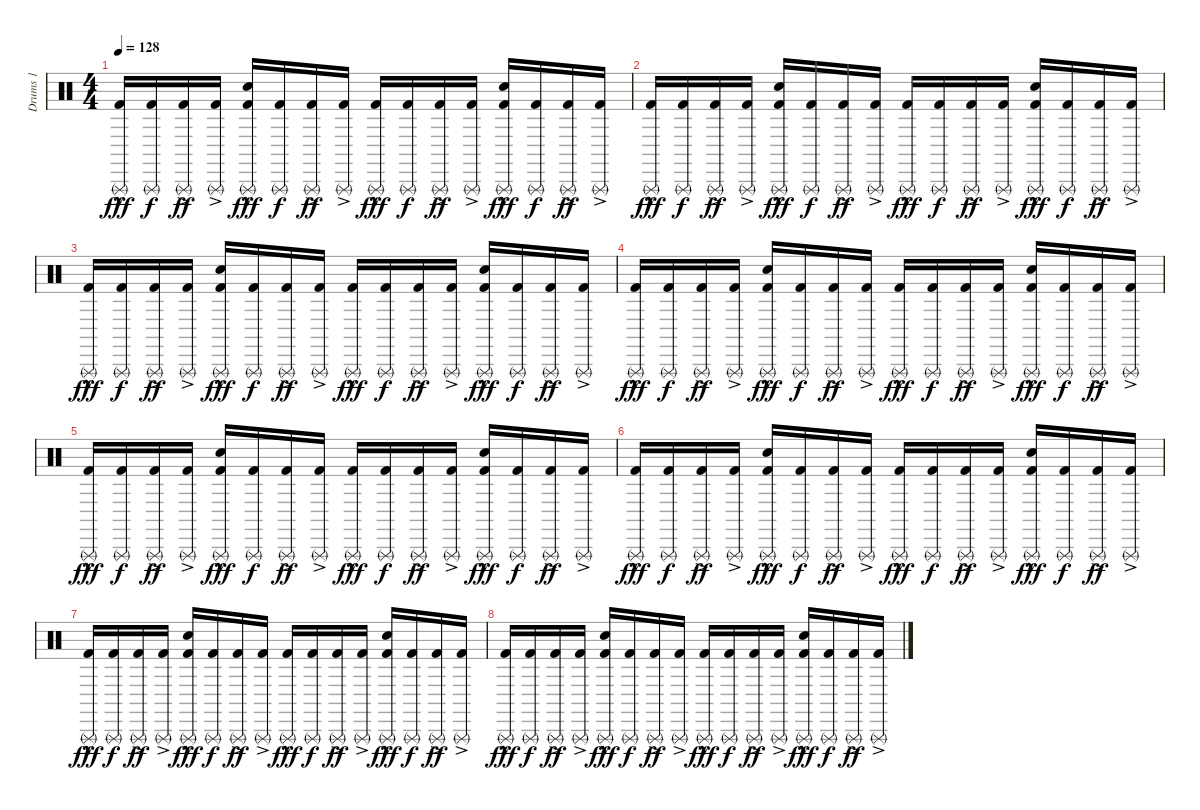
\track ("Drums 1" "Drums 1") {instrument percussion}
\staff {score}
\articulation defaults
\ts (4 4)
\tempo 128
\clef neutral
\ks c
("Triangle (rnute)"{hac} "Kick (hit) 2"{hac}).16{dy fff} ("Triangle (rnute)" "Kick (hit) 2").16{dy f} ("Triangle (rnute)"{ac} "Kick (hit) 2").16{dy ff} ("Triangle (rnute)"{ac} "Kick (hit) 2").16 ("Triangle (rnute)"{hac} "Snare (hit) 2"{hac} "Kick (hit) 2"{hac}).16{dy fff} ("Triangle (rnute)" "Kick (hit) 2").16{dy f} ("Triangle (rnute)"{ac} "Kick (hit) 2").16{dy ff} ("Triangle (rnute)"{ac} "Kick (hit) 2").16 ("Triangle (rnute)"{hac} "Kick (hit) 2"{hac}).16{dy fff} ("Triangle (rnute)" "Kick (hit) 2").16{dy f} ("Triangle (rnute)"{ac} "Kick (hit) 2").16{dy ff} ("Triangle (rnute)"{ac} "Kick (hit) 2").16 ("Triangle (rnute)"{hac} "Snare (hit) 2"{hac} "Kick (hit) 2"{hac}).16{dy fff} ("Triangle (rnute)" "Kick (hit) 2").16{dy f} ("Triangle (rnute)"{ac} "Kick (hit) 2").16{dy ff} ("Triangle (rnute)"{ac} "Kick (hit) 2").16 |
("Triangle (rnute)"{hac} "Kick (hit) 2"{hac}).16{dy fff} ("Triangle (rnute)" "Kick (hit) 2").16{dy f} ("Triangle (rnute)"{ac} "Kick (hit) 2").16{dy ff} ("Triangle (rnute)"{ac} "Kick (hit) 2").16 ("Triangle (rnute)"{hac} "Snare (hit) 2"{hac} "Kick (hit) 2"{hac}).16{dy fff} ("Triangle (rnute)" "Kick (hit) 2").16{dy f} ("Triangle (rnute)"{ac} "Kick (hit) 2").16{dy ff} ("Triangle (rnute)"{ac} "Kick (hit) 2").16 ("Triangle (rnute)"{hac} "Kick (hit) 2"{hac}).16{dy fff} ("Triangle (rnute)" "Kick (hit) 2").16{dy f} ("Triangle (rnute)"{ac} "Kick (hit) 2").16{dy ff} ("Triangle (rnute)"{ac} "Kick (hit) 2").16 ("Triangle (rnute)"{hac} "Snare (hit) 2"{hac} "Kick (hit) 2"{hac}).16{dy fff} ("Triangle (rnute)" "Kick (hit) 2").16{dy f} ("Triangle (rnute)"{ac} "Kick (hit) 2").16{dy ff} ("Triangle (rnute)"{ac} "Kick (hit) 2").16 |
("Triangle (rnute)"{hac} "Kick (hit) 2"{hac}).16{dy fff} ("Triangle (rnute)" "Kick (hit) 2").16{dy f} ("Triangle (rnute)"{ac} "Kick (hit) 2").16{dy ff} ("Triangle (rnute)"{ac} "Kick (hit) 2").16 ("Triangle (rnute)"{hac} "Snare (hit) 2"{hac} "Kick (hit) 2"{hac}).16{dy fff} ("Triangle (rnute)" "Kick (hit) 2").16{dy f} ("Triangle (rnute)"{ac} "Kick (hit) 2").16{dy ff} ("Triangle (rnute)"{ac} "Kick (hit) 2").16 ("Triangle (rnute)"{hac} "Kick (hit) 2"{hac}).16{dy fff} ("Triangle (rnute)" "Kick (hit) 2").16{dy f} ("Triangle (rnute)"{ac} "Kick (hit) 2").16{dy ff} ("Triangle (rnute)"{ac} "Kick (hit) 2").16 ("Triangle (rnute)"{hac} "Snare (hit) 2"{hac} "Kick (hit) 2"{hac}).16{dy fff} ("Triangle (rnute)" "Kick (hit) 2").16{dy f} ("Triangle (rnute)"{ac} "Kick (hit) 2").16{dy ff} ("Triangle (rnute)"{ac} "Kick (hit) 2").16 |
("Triangle (rnute)"{hac} "Kick (hit) 2"{hac}).16{dy fff} ("Triangle (rnute)" "Kick (hit) 2").16{dy f} ("Triangle (rnute)"{ac} "Kick (hit) 2").16{dy ff} ("Triangle (rnute)"{ac} "Kick (hit) 2").16 ("Triangle (rnute)"{hac} "Snare (hit) 2"{hac} "Kick (hit) 2"{hac}).16{dy fff} ("Triangle (rnute)" "Kick (hit) 2").16{dy f} ("Triangle (rnute)"{ac} "Kick (hit) 2").16{dy ff} ("Triangle (rnute)"{ac} "Kick (hit) 2").16 ("Triangle (rnute)"{hac} "Kick (hit) 2"{hac}).16{dy fff} ("Triangle (rnute)" "Kick (hit) 2").16{dy f} ("Triangle (rnute)"{ac} "Kick (hit) 2").16{dy ff} ("Triangle (rnute)"{ac} "Kick (hit) 2").16 ("Triangle (rnute)"{hac} "Snare (hit) 2"{hac} "Kick (hit) 2"{hac}).16{dy fff} ("Triangle (rnute)" "Kick (hit) 2").16{dy f} ("Triangle (rnute)"{ac} "Kick (hit) 2").16{dy ff} ("Triangle (rnute)"{ac} "Kick (hit) 2").16 |
("Triangle (rnute)"{hac} "Kick (hit) 2"{hac}).16{dy fff} ("Triangle (rnute)" "Kick (hit) 2").16{dy f} ("Triangle (rnute)"{ac} "Kick (hit) 2").16{dy ff} ("Triangle (rnute)"{ac} "Kick (hit) 2").16 ("Triangle (rnute)"{hac} "Snare (hit) 2"{hac} "Kick (hit) 2"{hac}).16{dy fff} ("Triangle (rnute)" "Kick (hit) 2").16{dy f} ("Triangle (rnute)"{ac} "Kick (hit) 2").16{dy ff} ("Triangle (rnute)"{ac} "Kick (hit) 2").16 ("Triangle (rnute)"{hac} "Kick (hit) 2"{hac}).16{dy fff} ("Triangle (rnute)" "Kick (hit) 2").16{dy f} ("Triangle (rnute)"{ac} "Kick (hit) 2").16{dy ff} ("Triangle (rnute)"{ac} "Kick (hit) 2").16 ("Triangle (rnute)"{hac} "Snare (hit) 2"{hac} "Kick (hit) 2"{hac}).16{dy fff} ("Triangle (rnute)" "Kick (hit) 2").16{dy f} ("Triangle (rnute)"{ac} "Kick (hit) 2").16{dy ff} ("Triangle (rnute)"{ac} "Kick (hit) 2").16 |
("Triangle (rnute)"{hac} "Kick (hit) 2"{hac}).16{dy fff} ("Triangle (rnute)" "Kick (hit) 2").16{dy f} ("Triangle (rnute)"{ac} "Kick (hit) 2").16{dy ff} ("Triangle (rnute)"{ac} "Kick (hit) 2").16 ("Triangle (rnute)"{hac} "Snare (hit) 2"{hac} "Kick (hit) 2"{hac}).16{dy fff} ("Triangle (rnute)" "Kick (hit) 2").16{dy f} ("Triangle (rnute)"{ac} "Kick (hit) 2").16{dy ff} ("Triangle (rnute)"{ac} "Kick (hit) 2").16 ("Triangle (rnute)"{hac} "Kick (hit) 2"{hac}).16{dy fff} ("Triangle (rnute)" "Kick (hit) 2").16{dy f} ("Triangle (rnute)"{ac} "Kick (hit) 2").16{dy ff} ("Triangle (rnute)"{ac} "Kick (hit) 2").16 ("Triangle (rnute)"{hac} "Snare (hit) 2"{hac} "Kick (hit) 2"{hac}).16{dy fff} ("Triangle (rnute)" "Kick (hit) 2").16{dy f} ("Triangle (rnute)"{ac} "Kick (hit) 2").16{dy ff} ("Triangle (rnute)"{ac} "Kick (hit) 2").16 |
("Triangle (rnute)"{hac} "Kick (hit) 2"{hac}).16{dy fff} ("Triangle (rnute)" "Kick (hit) 2").16{dy f} ("Triangle (rnute)"{ac} "Kick (hit) 2").16{dy ff} ("Triangle (rnute)"{ac} "Kick (hit) 2").16 ("Triangle (rnute)"{hac} "Snare (hit) 2"{hac} "Kick (hit) 2"{hac}).16{dy fff} ("Triangle (rnute)" "Kick (hit) 2").16{dy f} ("Triangle (rnute)"{ac} "Kick (hit) 2").16{dy ff} ("Triangle (rnute)"{ac} "Kick (hit) 2").16 ("Triangle (rnute)"{hac} "Kick (hit) 2"{hac}).16{dy fff} ("Triangle (rnute)" "Kick (hit) 2").16{dy f} ("Triangle (rnute)"{ac} "Kick (hit) 2").16{dy ff} ("Triangle (rnute)"{ac} "Kick (hit) 2").16 ("Triangle (rnute)"{hac} "Snare (hit) 2"{hac} "Kick (hit) 2"{hac}).16{dy fff} ("Triangle (rnute)" "Kick (hit) 2").16{dy f} ("Triangle (rnute)"{ac} "Kick (hit) 2").16{dy ff} ("Triangle (rnute)"{ac} "Kick (hit) 2").16 |
("Triangle (rnute)"{hac} "Kick (hit) 2"{hac}).16{dy fff} ("Triangle (rnute)" "Kick (hit) 2").16{dy f} ("Triangle (rnute)"{ac} "Kick (hit) 2").16{dy ff} ("Triangle (rnute)"{ac} "Kick (hit) 2").16 ("Triangle (rnute)"{hac} "Snare (hit) 2"{hac} "Kick (hit) 2"{hac}).16{dy fff} ("Triangle (rnute)" "Kick (hit) 2").16{dy f} ("Triangle (rnute)"{ac} "Kick (hit) 2").16{dy ff} ("Triangle (rnute)"{ac} "Kick (hit) 2").16 ("Triangle (rnute)"{hac} "Kick (hit) 2"{hac}).16{dy fff} ("Triangle (rnute)" "Kick (hit) 2").16{dy f} ("Triangle (rnute)"{ac} "Kick (hit) 2").16{dy ff} ("Triangle (rnute)"{ac} "Kick (hit) 2").16 ("Triangle (rnute)"{hac} "Snare (hit) 2"{hac} "Kick (hit) 2"{hac}).16{dy fff} ("Triangle (rnute)" "Kick (hit) 2").16{dy f} ("Triangle (rnute)"{ac} "Kick (hit) 2").16{dy ff} ("Triangle (rnute)"{ac} "Kick (hit) 2").16
